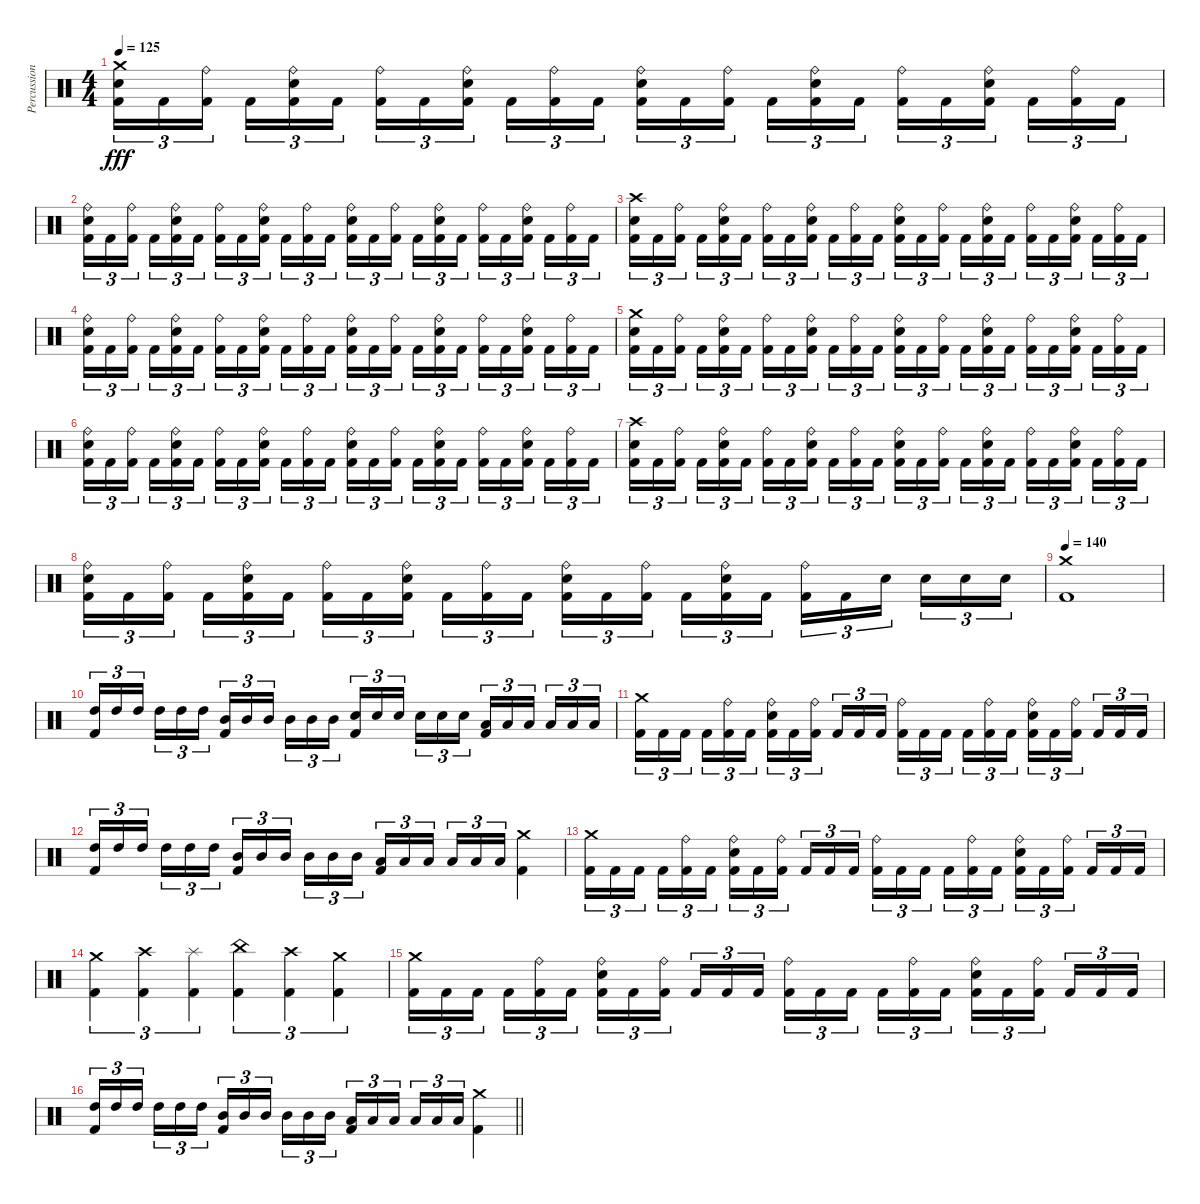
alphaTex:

\track ("Percussions" "Percussion") {instrument percussion}
\staff {score}
\articulation defaults
\ts (4 4)
\tempo 125
\clef neutral
\ks c
("Crash medium (hit)" "Snare (hit) 2" "Kick (hit) 2").16{tu (3 2) dy fff} "Kick (hit) 2".16{tu (3 2)} ("Ride (bell)" "Kick (hit) 2").16{tu (3 2) beam splitsecondary} "Kick (hit) 2".16{tu (3 2)} ("Ride (bell)" "Snare (hit) 2" "Kick (hit) 2").16{tu (3 2)} "Kick (hit) 2".16{tu (3 2)} ("Ride (bell)" "Kick (hit) 2").16{tu (3 2)} "Kick (hit) 2".16{tu (3 2)} ("Ride (bell)" "Snare (hit) 2" "Kick (hit) 2").16{tu (3 2) beam splitsecondary} "Kick (hit) 2".16{tu (3 2)} ("Ride (bell)" "Kick (hit) 2").16{tu (3 2)} "Kick (hit) 2".16{tu (3 2)} ("Ride (bell)" "Snare (hit) 2" "Kick (hit) 2").16{tu (3 2)} "Kick (hit) 2".16{tu (3 2)} ("Ride (bell)" "Kick (hit) 2").16{tu (3 2) beam splitsecondary} "Kick (hit) 2".16{tu (3 2)} ("Ride (bell)" "Snare (hit) 2" "Kick (hit) 2").16{tu (3 2)} "Kick (hit) 2".16{tu (3 2)} ("Ride (bell)" "Kick (hit) 2").16{tu (3 2)} "Kick (hit) 2".16{tu (3 2)} ("Ride (bell)" "Snare (hit) 2" "Kick (hit) 2").16{tu (3 2) beam splitsecondary} "Kick (hit) 2".16{tu (3 2)} ("Ride (bell)" "Kick (hit) 2").16{tu (3 2)} "Kick (hit) 2".16{tu (3 2)} |
("Ride (bell)" "Snare (hit) 2" "Kick (hit) 2").16{tu (3 2)} "Kick (hit) 2".16{tu (3 2)} ("Ride (bell)" "Kick (hit) 2").16{tu (3 2) beam splitsecondary} "Kick (hit) 2".16{tu (3 2)} ("Ride (bell)" "Snare (hit) 2" "Kick (hit) 2").16{tu (3 2)} "Kick (hit) 2".16{tu (3 2)} ("Ride (bell)" "Kick (hit) 2").16{tu (3 2)} "Kick (hit) 2".16{tu (3 2)} ("Ride (bell)" "Snare (hit) 2" "Kick (hit) 2").16{tu (3 2) beam splitsecondary} "Kick (hit) 2".16{tu (3 2)} ("Ride (bell)" "Kick (hit) 2").16{tu (3 2)} "Kick (hit) 2".16{tu (3 2)} ("Ride (bell)" "Snare (hit) 2" "Kick (hit) 2").16{tu (3 2)} "Kick (hit) 2".16{tu (3 2)} ("Ride (bell)" "Kick (hit) 2").16{tu (3 2) beam splitsecondary} "Kick (hit) 2".16{tu (3 2)} ("Ride (bell)" "Snare (hit) 2" "Kick (hit) 2").16{tu (3 2)} "Kick (hit) 2".16{tu (3 2)} ("Ride (bell)" "Kick (hit) 2").16{tu (3 2)} "Kick (hit) 2".16{tu (3 2)} ("Ride (bell)" "Snare (hit) 2" "Kick (hit) 2").16{tu (3 2) beam splitsecondary} "Kick (hit) 2".16{tu (3 2)} ("Ride (bell)" "Kick (hit) 2").16{tu (3 2)} "Kick (hit) 2".16{tu (3 2)} |
("Crash high (hit)" "Snare (hit) 2" "Kick (hit) 2").16{tu (3 2)} "Kick (hit) 2".16{tu (3 2)} ("Ride (bell)" "Kick (hit) 2").16{tu (3 2) beam splitsecondary} "Kick (hit) 2".16{tu (3 2)} ("Ride (bell)" "Snare (hit) 2" "Kick (hit) 2").16{tu (3 2)} "Kick (hit) 2".16{tu (3 2)} ("Ride (bell)" "Kick (hit) 2").16{tu (3 2)} "Kick (hit) 2".16{tu (3 2)} ("Ride (bell)" "Snare (hit) 2" "Kick (hit) 2").16{tu (3 2) beam splitsecondary} "Kick (hit) 2".16{tu (3 2)} ("Ride (bell)" "Kick (hit) 2").16{tu (3 2)} "Kick (hit) 2".16{tu (3 2)} ("Ride (bell)" "Snare (hit) 2" "Kick (hit) 2").16{tu (3 2)} "Kick (hit) 2".16{tu (3 2)} ("Ride (bell)" "Kick (hit) 2").16{tu (3 2) beam splitsecondary} "Kick (hit) 2".16{tu (3 2)} ("Ride (bell)" "Snare (hit) 2" "Kick (hit) 2").16{tu (3 2)} "Kick (hit) 2".16{tu (3 2)} ("Ride (bell)" "Kick (hit) 2").16{tu (3 2)} "Kick (hit) 2".16{tu (3 2)} ("Ride (bell)" "Snare (hit) 2" "Kick (hit) 2").16{tu (3 2) beam splitsecondary} "Kick (hit) 2".16{tu (3 2)} ("Ride (bell)" "Kick (hit) 2").16{tu (3 2)} "Kick (hit) 2".16{tu (3 2)} |
("Ride (bell)" "Snare (hit) 2" "Kick (hit) 2").16{tu (3 2)} "Kick (hit) 2".16{tu (3 2)} ("Ride (bell)" "Kick (hit) 2").16{tu (3 2) beam splitsecondary} "Kick (hit) 2".16{tu (3 2)} ("Ride (bell)" "Snare (hit) 2" "Kick (hit) 2").16{tu (3 2)} "Kick (hit) 2".16{tu (3 2)} ("Ride (bell)" "Kick (hit) 2").16{tu (3 2)} "Kick (hit) 2".16{tu (3 2)} ("Ride (bell)" "Snare (hit) 2" "Kick (hit) 2").16{tu (3 2) beam splitsecondary} "Kick (hit) 2".16{tu (3 2)} ("Ride (bell)" "Kick (hit) 2").16{tu (3 2)} "Kick (hit) 2".16{tu (3 2)} ("Ride (bell)" "Snare (hit) 2" "Kick (hit) 2").16{tu (3 2)} "Kick (hit) 2".16{tu (3 2)} ("Ride (bell)" "Kick (hit) 2").16{tu (3 2) beam splitsecondary} "Kick (hit) 2".16{tu (3 2)} ("Ride (bell)" "Snare (hit) 2" "Kick (hit) 2").16{tu (3 2)} "Kick (hit) 2".16{tu (3 2)} ("Ride (bell)" "Kick (hit) 2").16{tu (3 2)} "Kick (hit) 2".16{tu (3 2)} ("Ride (bell)" "Snare (hit) 2" "Kick (hit) 2").16{tu (3 2) beam splitsecondary} "Kick (hit) 2".16{tu (3 2)} ("Ride (bell)" "Kick (hit) 2").16{tu (3 2)} "Kick (hit) 2".16{tu (3 2)} |
("Crash medium (hit)" "Snare (hit) 2" "Kick (hit) 2").16{tu (3 2)} "Kick (hit) 2".16{tu (3 2)} ("Ride (bell)" "Kick (hit) 2").16{tu (3 2) beam splitsecondary} "Kick (hit) 2".16{tu (3 2)} ("Ride (bell)" "Snare (hit) 2" "Kick (hit) 2").16{tu (3 2)} "Kick (hit) 2".16{tu (3 2)} ("Ride (bell)" "Kick (hit) 2").16{tu (3 2)} "Kick (hit) 2".16{tu (3 2)} ("Ride (bell)" "Snare (hit) 2" "Kick (hit) 2").16{tu (3 2) beam splitsecondary} "Kick (hit) 2".16{tu (3 2)} ("Ride (bell)" "Kick (hit) 2").16{tu (3 2)} "Kick (hit) 2".16{tu (3 2)} ("Ride (bell)" "Snare (hit) 2" "Kick (hit) 2").16{tu (3 2)} "Kick (hit) 2".16{tu (3 2)} ("Ride (bell)" "Kick (hit) 2").16{tu (3 2) beam splitsecondary} "Kick (hit) 2".16{tu (3 2)} ("Ride (bell)" "Snare (hit) 2" "Kick (hit) 2").16{tu (3 2)} "Kick (hit) 2".16{tu (3 2)} ("Ride (bell)" "Kick (hit) 2").16{tu (3 2)} "Kick (hit) 2".16{tu (3 2)} ("Ride (bell)" "Snare (hit) 2" "Kick (hit) 2").16{tu (3 2) beam splitsecondary} "Kick (hit) 2".16{tu (3 2)} ("Ride (bell)" "Kick (hit) 2").16{tu (3 2)} "Kick (hit) 2".16{tu (3 2)} |
("Ride (bell)" "Snare (hit) 2" "Kick (hit) 2").16{tu (3 2)} "Kick (hit) 2".16{tu (3 2)} ("Ride (bell)" "Kick (hit) 2").16{tu (3 2) beam splitsecondary} "Kick (hit) 2".16{tu (3 2)} ("Ride (bell)" "Snare (hit) 2" "Kick (hit) 2").16{tu (3 2)} "Kick (hit) 2".16{tu (3 2)} ("Ride (bell)" "Kick (hit) 2").16{tu (3 2)} "Kick (hit) 2".16{tu (3 2)} ("Ride (bell)" "Snare (hit) 2" "Kick (hit) 2").16{tu (3 2) beam splitsecondary} "Kick (hit) 2".16{tu (3 2)} ("Ride (bell)" "Kick (hit) 2").16{tu (3 2)} "Kick (hit) 2".16{tu (3 2)} ("Ride (bell)" "Snare (hit) 2" "Kick (hit) 2").16{tu (3 2)} "Kick (hit) 2".16{tu (3 2)} ("Ride (bell)" "Kick (hit) 2").16{tu (3 2) beam splitsecondary} "Kick (hit) 2".16{tu (3 2)} ("Ride (bell)" "Snare (hit) 2" "Kick (hit) 2").16{tu (3 2)} "Kick (hit) 2".16{tu (3 2)} ("Ride (bell)" "Kick (hit) 2").16{tu (3 2)} "Kick (hit) 2".16{tu (3 2)} ("Ride (bell)" "Snare (hit) 2" "Kick (hit) 2").16{tu (3 2) beam splitsecondary} "Kick (hit) 2".16{tu (3 2)} ("Ride (bell)" "Kick (hit) 2").16{tu (3 2)} "Kick (hit) 2".16{tu (3 2)} |
("Crash high (hit)" "Snare (hit) 2" "Kick (hit) 2").16{tu (3 2)} "Kick (hit) 2".16{tu (3 2)} ("Ride (bell)" "Kick (hit) 2").16{tu (3 2) beam splitsecondary} "Kick (hit) 2".16{tu (3 2)} ("Ride (bell)" "Snare (hit) 2" "Kick (hit) 2").16{tu (3 2)} "Kick (hit) 2".16{tu (3 2)} ("Ride (bell)" "Kick (hit) 2").16{tu (3 2)} "Kick (hit) 2".16{tu (3 2)} ("Ride (bell)" "Snare (hit) 2" "Kick (hit) 2").16{tu (3 2) beam splitsecondary} "Kick (hit) 2".16{tu (3 2)} ("Ride (bell)" "Kick (hit) 2").16{tu (3 2)} "Kick (hit) 2".16{tu (3 2)} ("Ride (bell)" "Snare (hit) 2" "Kick (hit) 2").16{tu (3 2)} "Kick (hit) 2".16{tu (3 2)} ("Ride (bell)" "Kick (hit) 2").16{tu (3 2) beam splitsecondary} "Kick (hit) 2".16{tu (3 2)} ("Ride (bell)" "Snare (hit) 2" "Kick (hit) 2").16{tu (3 2)} "Kick (hit) 2".16{tu (3 2)} ("Ride (bell)" "Kick (hit) 2").16{tu (3 2)} "Kick (hit) 2".16{tu (3 2)} ("Ride (bell)" "Snare (hit) 2" "Kick (hit) 2").16{tu (3 2) beam splitsecondary} "Kick (hit) 2".16{tu (3 2)} ("Ride (bell)" "Kick (hit) 2").16{tu (3 2)} "Kick (hit) 2".16{tu (3 2)} |
("Ride (bell)" "Snare (hit) 2" "Kick (hit) 2").16{tu (3 2)} "Kick (hit) 2".16{tu (3 2)} ("Ride (bell)" "Kick (hit) 2").16{tu (3 2) beam splitsecondary} "Kick (hit) 2".16{tu (3 2)} ("Ride (bell)" "Snare (hit) 2" "Kick (hit) 2").16{tu (3 2)} "Kick (hit) 2".16{tu (3 2)} ("Ride (bell)" "Kick (hit) 2").16{tu (3 2)} "Kick (hit) 2".16{tu (3 2)} ("Ride (bell)" "Snare (hit) 2" "Kick (hit) 2").16{tu (3 2) beam splitsecondary} "Kick (hit) 2".16{tu (3 2)} ("Ride (bell)" "Kick (hit) 2").16{tu (3 2)} "Kick (hit) 2".16{tu (3 2)} ("Ride (bell)" "Snare (hit) 2" "Kick (hit) 2").16{tu (3 2)} "Kick (hit) 2".16{tu (3 2)} ("Ride (bell)" "Kick (hit) 2").16{tu (3 2) beam splitsecondary} "Kick (hit) 2".16{tu (3 2)} ("Ride (bell)" "Snare (hit) 2" "Kick (hit) 2").16{tu (3 2)} "Kick (hit) 2".16{tu (3 2)} ("Ride (bell)" "Kick (hit) 2").16{tu (3 2)} "Kick (hit) 2".16{tu (3 2)} "Snare (hit) 2".16{tu (3 2) beam splitsecondary} "Snare (hit) 2".16{tu (3 2)} "Snare (hit) 2".16{tu (3 2)} "Snare (hit) 2".16{tu (3 2)} |
\tempo 140
("Crash medium (hit)" "Kick (hit) 2").1 |
("High Tom (hit)" "Kick (hit) 2").16{tu (3 2)} "High Tom (hit)".16{tu (3 2)} "High Tom (hit)".16{tu (3 2) beam splitsecondary} "High Tom (hit)".16{tu (3 2)} "High Tom (hit)".16{tu (3 2)} "High Tom (hit)".16{tu (3 2)} ("Mid Tom (hit)" "Kick (hit) 2").16{tu (3 2)} "Mid Tom (hit)".16{tu (3 2)} "Mid Tom (hit)".16{tu (3 2) beam splitsecondary} "Mid Tom (hit)".16{tu (3 2)} "Mid Tom (hit)".16{tu (3 2)} "Mid Tom (hit)".16{tu (3 2)} ("Snare (hit) 2" "Kick (hit) 2").16{tu (3 2)} "Snare (hit) 2".16{tu (3 2)} "Snare (hit) 2".16{tu (3 2) beam splitsecondary} "Snare (hit) 2".16{tu (3 2)} "Snare (hit) 2".16{tu (3 2)} "Snare (hit) 2".16{tu (3 2)} ("Low Tom (hit)" "Kick (hit) 2").16{tu (3 2)} "Low Tom (hit)".16{tu (3 2)} "Low Tom (hit)".16{tu (3 2) beam splitsecondary} "Low Tom (hit)".16{tu (3 2)} "Low Tom (hit)".16{tu (3 2)} "Low Tom (hit)".16{tu (3 2)} |
("Crash medium (hit)" "Kick (hit) 2").16{tu (3 2)} "Kick (hit) 2".16{tu (3 2)} "Kick (hit) 2".16{tu (3 2) beam splitsecondary} "Kick (hit) 2".16{tu (3 2)} ("Ride (bell)" "Kick (hit) 2").16{tu (3 2)} "Kick (hit) 2".16{tu (3 2)} ("Ride (bell)" "Snare (hit) 2" "Kick (hit) 2").16{tu (3 2)} "Kick (hit) 2".16{tu (3 2)} ("Ride (bell)" "Kick (hit) 2").16{tu (3 2) beam splitsecondary} "Kick (hit) 2".16{tu (3 2)} "Kick (hit) 2".16{tu (3 2)} "Kick (hit) 2".16{tu (3 2)} ("Ride (bell)" "Kick (hit) 2").16{tu (3 2)} "Kick (hit) 2".16{tu (3 2)} "Kick (hit) 2".16{tu (3 2) beam splitsecondary} "Kick (hit) 2".16{tu (3 2)} ("Ride (bell)" "Kick (hit) 2").16{tu (3 2)} "Kick (hit) 2".16{tu (3 2)} ("Ride (bell)" "Snare (hit) 2" "Kick (hit) 2").16{tu (3 2)} "Kick (hit) 2".16{tu (3 2)} ("Ride (bell)" "Kick (hit) 2").16{tu (3 2) beam splitsecondary} "Kick (hit) 2".16{tu (3 2)} "Kick (hit) 2".16{tu (3 2)} "Kick (hit) 2".16{tu (3 2)} |
("High Tom (hit)" "Kick (hit) 2").16{tu (3 2)} "High Tom (hit)".16{tu (3 2)} "High Tom (hit)".16{tu (3 2) beam splitsecondary} "High Tom (hit)".16{tu (3 2)} "High Tom (hit)".16{tu (3 2)} "High Tom (hit)".16{tu (3 2)} ("Mid Tom (hit)" "Kick (hit) 2").16{tu (3 2)} "Mid Tom (hit)".16{tu (3 2)} "Mid Tom (hit)".16{tu (3 2) beam splitsecondary} "Mid Tom (hit)".16{tu (3 2)} "Mid Tom (hit)".16{tu (3 2)} "Mid Tom (hit)".16{tu (3 2)} ("Low Tom (hit)" "Kick (hit) 2").16{tu (3 2)} "Low Tom (hit)".16{tu (3 2)} "Low Tom (hit)".16{tu (3 2) beam splitsecondary} "Low Tom (hit)".16{tu (3 2)} "Low Tom (hit)".16{tu (3 2)} "Low Tom (hit)".16{tu (3 2)} ("Crash medium (hit)" "Kick (hit) 2").4 |
("Crash medium (hit)" "Kick (hit) 2").16{tu (3 2)} "Kick (hit) 2".16{tu (3 2)} "Kick (hit) 2".16{tu (3 2) beam splitsecondary} "Kick (hit) 2".16{tu (3 2)} ("Ride (bell)" "Kick (hit) 2").16{tu (3 2)} "Kick (hit) 2".16{tu (3 2)} ("Ride (bell)" "Snare (hit) 2" "Kick (hit) 2").16{tu (3 2)} "Kick (hit) 2".16{tu (3 2)} ("Ride (bell)" "Kick (hit) 2").16{tu (3 2) beam splitsecondary} "Kick (hit) 2".16{tu (3 2)} "Kick (hit) 2".16{tu (3 2)} "Kick (hit) 2".16{tu (3 2)} ("Ride (bell)" "Kick (hit) 2").16{tu (3 2)} "Kick (hit) 2".16{tu (3 2)} "Kick (hit) 2".16{tu (3 2) beam splitsecondary} "Kick (hit) 2".16{tu (3 2)} ("Ride (bell)" "Kick (hit) 2").16{tu (3 2)} "Kick (hit) 2".16{tu (3 2)} ("Ride (bell)" "Snare (hit) 2" "Kick (hit) 2").16{tu (3 2)} "Kick (hit) 2".16{tu (3 2)} ("Ride (bell)" "Kick (hit) 2").16{tu (3 2) beam splitsecondary} "Kick (hit) 2".16{tu (3 2)} "Kick (hit) 2".16{tu (3 2)} "Kick (hit) 2".16{tu (3 2)} |
("Crash medium (hit)" "Kick (hit) 2").4{tu (3 2)} ("Crash high (hit)" "Kick (hit) 2").4{tu (3 2)} ("Splash (hit)" "Kick (hit) 2").4{tu (3 2)} ("China (hit)" "Kick (hit) 2").4{tu (3 2)} ("Crash high (hit)" "Kick (hit) 2").4{tu (3 2)} ("Crash medium (hit)" "Kick (hit) 2").4{tu (3 2)} |
("Crash medium (hit)" "Kick (hit) 2").16{tu (3 2)} "Kick (hit) 2".16{tu (3 2)} "Kick (hit) 2".16{tu (3 2) beam splitsecondary} "Kick (hit) 2".16{tu (3 2)} ("Ride (bell)" "Kick (hit) 2").16{tu (3 2)} "Kick (hit) 2".16{tu (3 2)} ("Ride (bell)" "Snare (hit) 2" "Kick (hit) 2").16{tu (3 2)} "Kick (hit) 2".16{tu (3 2)} ("Ride (bell)" "Kick (hit) 2").16{tu (3 2) beam splitsecondary} "Kick (hit) 2".16{tu (3 2)} "Kick (hit) 2".16{tu (3 2)} "Kick (hit) 2".16{tu (3 2)} ("Ride (bell)" "Kick (hit) 2").16{tu (3 2)} "Kick (hit) 2".16{tu (3 2)} "Kick (hit) 2".16{tu (3 2) beam splitsecondary} "Kick (hit) 2".16{tu (3 2)} ("Ride (bell)" "Kick (hit) 2").16{tu (3 2)} "Kick (hit) 2".16{tu (3 2)} ("Ride (bell)" "Snare (hit) 2" "Kick (hit) 2").16{tu (3 2)} "Kick (hit) 2".16{tu (3 2)} ("Ride (bell)" "Kick (hit) 2").16{tu (3 2) beam splitsecondary} "Kick (hit) 2".16{tu (3 2)} "Kick (hit) 2".16{tu (3 2)} "Kick (hit) 2".16{tu (3 2)} |
\barLineRight lightlight
("High Tom (hit)" "Kick (hit) 2").16{tu (3 2)} "High Tom (hit)".16{tu (3 2)} "High Tom (hit)".16{tu (3 2) beam splitsecondary} "High Tom (hit)".16{tu (3 2)} "High Tom (hit)".16{tu (3 2)} "High Tom (hit)".16{tu (3 2)} ("Mid Tom (hit)" "Kick (hit) 2").16{tu (3 2)} "Mid Tom (hit)".16{tu (3 2)} "Mid Tom (hit)".16{tu (3 2) beam splitsecondary} "Mid Tom (hit)".16{tu (3 2)} "Mid Tom (hit)".16{tu (3 2)} "Mid Tom (hit)".16{tu (3 2)} ("Low Tom (hit)" "Kick (hit) 2").16{tu (3 2)} "Low Tom (hit)".16{tu (3 2)} "Low Tom (hit)".16{tu (3 2) beam splitsecondary} "Low Tom (hit)".16{tu (3 2)} "Low Tom (hit)".16{tu (3 2)} "Low Tom (hit)".16{tu (3 2)} ("Crash medium (hit)" "Kick (hit) 2").4
